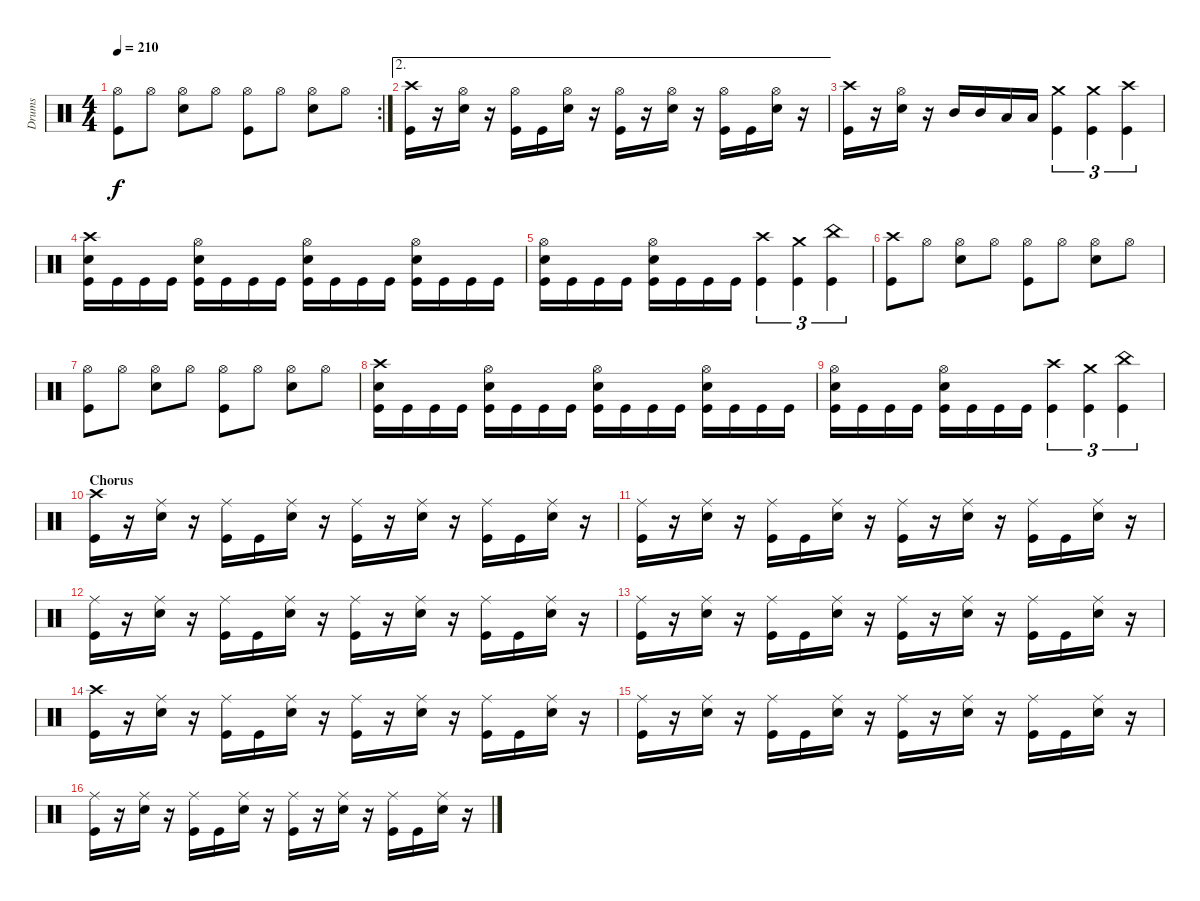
\track ("Drums" "Drums") {instrument percussion}
\staff {score}
\articulation defaults
\rc 2
\ts (4 4)
\tempo 210
\clef neutral
\ks c
("Hi-Hat (open)" "Kick (hit)").8{dy f} "Hi-Hat (open)".8 ("Hi-Hat (open)" "Snare (hit) 2").8 "Hi-Hat (open)".8 ("Hi-Hat (open)" "Kick (hit)").8 "Hi-Hat (open)".8 ("Hi-Hat (open)" "Snare (hit) 2").8 "Hi-Hat (open)".8 |
\ae 2
("Crash high (hit)" "Kick (hit)").16 r.16 ("Hi-Hat (open)" "Snare (hit) 2").16 r.16 ("Hi-Hat (open)" "Kick (hit)").16 "Kick (hit)".16 ("Hi-Hat (open)" "Snare (hit) 2").16 r.16 ("Hi-Hat (open)" "Kick (hit)").16 r.16 ("Hi-Hat (open)" "Snare (hit) 2").16 r.16 ("Hi-Hat (open)" "Kick (hit)").16 "Kick (hit)".16 ("Hi-Hat (open)" "Snare (hit) 2").16 r.16 |
("Crash high (hit)" "Kick (hit)").16 r.16 ("Hi-Hat (open)" "Snare (hit) 2").16 r.16 "Mid Tom (hit)".16 "Mid Tom (hit)".16 "Low Tom (hit)".16 "Low Tom (hit)".16 ("Crash medium (hit)" "Kick (hit)").4{tu (3 2)} ("Crash medium (hit)" "Kick (hit)").4{tu (3 2)} ("Crash high (hit)" "Kick (hit)").4{tu (3 2)} |
("Crash high (hit)" "Snare (hit) 2" "Kick (hit)").16 "Kick (hit)".16 "Kick (hit)".16 "Kick (hit)".16 ("Hi-Hat (open)" "Snare (hit) 2" "Kick (hit)").16 "Kick (hit)".16 "Kick (hit)".16 "Kick (hit)".16 ("Hi-Hat (open)" "Snare (hit) 2" "Kick (hit)").16 "Kick (hit)".16 "Kick (hit)".16 "Kick (hit)".16 ("Hi-Hat (open)" "Snare (hit) 2" "Kick (hit)").16 "Kick (hit)".16 "Kick (hit)".16 "Kick (hit)".16 |
("Hi-Hat (open)" "Snare (hit) 2" "Kick (hit)").16 "Kick (hit)".16 "Kick (hit)".16 "Kick (hit)".16 ("Hi-Hat (open)" "Snare (hit) 2" "Kick (hit)").16 "Kick (hit)".16 "Kick (hit)".16 "Kick (hit)".16 ("Crash high (hit)" "Kick (hit)").4{tu (3 2)} ("Crash medium (hit)" "Kick (hit)").4{tu (3 2)} ("China (hit)" "Kick (hit)").4{tu (3 2)} |
("Crash high (hit)" "Kick (hit)").8 "Hi-Hat (open)".8 ("Hi-Hat (open)" "Snare (hit) 2").8 "Hi-Hat (open)".8 ("Hi-Hat (open)" "Kick (hit)").8 "Hi-Hat (open)".8 ("Hi-Hat (open)" "Snare (hit) 2").8 "Hi-Hat (open)".8 |
("Hi-Hat (open)" "Kick (hit)").8 "Hi-Hat (open)".8 ("Hi-Hat (open)" "Snare (hit) 2").8 "Hi-Hat (open)".8 ("Hi-Hat (open)" "Kick (hit)").8 "Hi-Hat (open)".8 ("Hi-Hat (open)" "Snare (hit) 2").8 "Hi-Hat (open)".8 |
("Crash high (hit)" "Snare (hit) 2" "Kick (hit)").16 "Kick (hit)".16 "Kick (hit)".16 "Kick (hit)".16 ("Hi-Hat (open)" "Snare (hit) 2" "Kick (hit)").16 "Kick (hit)".16 "Kick (hit)".16 "Kick (hit)".16 ("Hi-Hat (open)" "Snare (hit) 2" "Kick (hit)").16 "Kick (hit)".16 "Kick (hit)".16 "Kick (hit)".16 ("Hi-Hat (open)" "Snare (hit) 2" "Kick (hit)").16 "Kick (hit)".16 "Kick (hit)".16 "Kick (hit)".16 |
("Hi-Hat (open)" "Snare (hit) 2" "Kick (hit)").16 "Kick (hit)".16 "Kick (hit)".16 "Kick (hit)".16 ("Hi-Hat (open)" "Snare (hit) 2" "Kick (hit)").16 "Kick (hit)".16 "Kick (hit)".16 "Kick (hit)".16 ("Crash high (hit)" "Kick (hit)").4{tu (3 2)} ("Crash medium (hit)" "Kick (hit)").4{tu (3 2)} ("China (hit)" "Kick (hit)").4{tu (3 2)} |
\section ("" "Chorus")
("Crash high (hit)" "Kick (hit)").16 r.16 ("Ride (middle)" "Snare (hit) 2").16 r.16 ("Ride (middle)" "Kick (hit)").16 "Kick (hit)".16 ("Ride (middle)" "Snare (hit) 2").16 r.16 ("Ride (middle)" "Kick (hit)").16 r.16 ("Ride (middle)" "Snare (hit) 2").16 r.16 ("Ride (middle)" "Kick (hit)").16 "Kick (hit)".16 ("Ride (middle)" "Snare (hit) 2").16 r.16 |
("Ride (middle)" "Kick (hit)").16 r.16 ("Ride (middle)" "Snare (hit) 2").16 r.16 ("Ride (middle)" "Kick (hit)").16 "Kick (hit)".16 ("Ride (middle)" "Snare (hit) 2").16 r.16 ("Ride (middle)" "Kick (hit)").16 r.16 ("Ride (middle)" "Snare (hit) 2").16 r.16 ("Ride (middle)" "Kick (hit)").16 "Kick (hit)".16 ("Ride (middle)" "Snare (hit) 2").16 r.16 |
("Ride (middle)" "Kick (hit)").16 r.16 ("Ride (middle)" "Snare (hit) 2").16 r.16 ("Ride (middle)" "Kick (hit)").16 "Kick (hit)".16 ("Ride (middle)" "Snare (hit) 2").16 r.16 ("Ride (middle)" "Kick (hit)").16 r.16 ("Ride (middle)" "Snare (hit) 2").16 r.16 ("Ride (middle)" "Kick (hit)").16 "Kick (hit)".16 ("Ride (middle)" "Snare (hit) 2").16 r.16 |
("Ride (middle)" "Kick (hit)").16 r.16 ("Ride (middle)" "Snare (hit) 2").16 r.16 ("Ride (middle)" "Kick (hit)").16 "Kick (hit)".16 ("Ride (middle)" "Snare (hit) 2").16 r.16 ("Ride (middle)" "Kick (hit)").16 r.16 ("Ride (middle)" "Snare (hit) 2").16 r.16 ("Ride (middle)" "Kick (hit)").16 "Kick (hit)".16 ("Ride (middle)" "Snare (hit) 2").16 r.16 |
("Crash high (hit)" "Kick (hit)").16 r.16 ("Ride (middle)" "Snare (hit) 2").16 r.16 ("Ride (middle)" "Kick (hit)").16 "Kick (hit)".16 ("Ride (middle)" "Snare (hit) 2").16 r.16 ("Ride (middle)" "Kick (hit)").16 r.16 ("Ride (middle)" "Snare (hit) 2").16 r.16 ("Ride (middle)" "Kick (hit)").16 "Kick (hit)".16 ("Ride (middle)" "Snare (hit) 2").16 r.16 |
("Ride (middle)" "Kick (hit)").16 r.16 ("Ride (middle)" "Snare (hit) 2").16 r.16 ("Ride (middle)" "Kick (hit)").16 "Kick (hit)".16 ("Ride (middle)" "Snare (hit) 2").16 r.16 ("Ride (middle)" "Kick (hit)").16 r.16 ("Ride (middle)" "Snare (hit) 2").16 r.16 ("Ride (middle)" "Kick (hit)").16 "Kick (hit)".16 ("Ride (middle)" "Snare (hit) 2").16 r.16 |
("Ride (middle)" "Kick (hit)").16 r.16 ("Ride (middle)" "Snare (hit) 2").16 r.16 ("Ride (middle)" "Kick (hit)").16 "Kick (hit)".16 ("Ride (middle)" "Snare (hit) 2").16 r.16 ("Ride (middle)" "Kick (hit)").16 r.16 ("Ride (middle)" "Snare (hit) 2").16 r.16 ("Ride (middle)" "Kick (hit)").16 "Kick (hit)".16 ("Ride (middle)" "Snare (hit) 2").16 r.16
